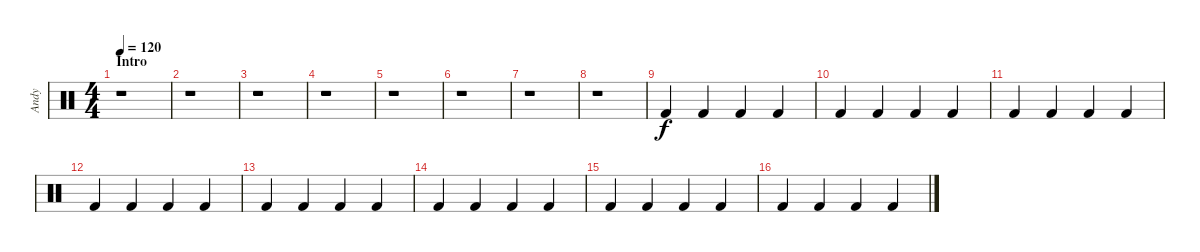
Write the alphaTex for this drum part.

\track ("Andy" "Andy") {instrument percussion}
\staff {score}
\articulation defaults
\ts (4 4)
\section ("" "Intro")
\tempo 120
\clef neutral
\ks c
r.1{dy f} |
r.1 |
r.1 |
r.1 |
r.1 |
r.1 |
r.1 |
r.1 |
"Kick (hit) 2".4 "Kick (hit) 2".4 "Kick (hit) 2".4 "Kick (hit) 2".4 |
"Kick (hit) 2".4 "Kick (hit) 2".4 "Kick (hit) 2".4 "Kick (hit) 2".4 |
"Kick (hit) 2".4 "Kick (hit) 2".4 "Kick (hit) 2".4 "Kick (hit) 2".4 |
"Kick (hit) 2".4 "Kick (hit) 2".4 "Kick (hit) 2".4 "Kick (hit) 2".4 |
"Kick (hit) 2".4 "Kick (hit) 2".4 "Kick (hit) 2".4 "Kick (hit) 2".4 |
"Kick (hit) 2".4 "Kick (hit) 2".4 "Kick (hit) 2".4 "Kick (hit) 2".4 |
"Kick (hit) 2".4 "Kick (hit) 2".4 "Kick (hit) 2".4 "Kick (hit) 2".4 |
"Kick (hit) 2".4 "Kick (hit) 2".4 "Kick (hit) 2".4 "Kick (hit) 2".4
